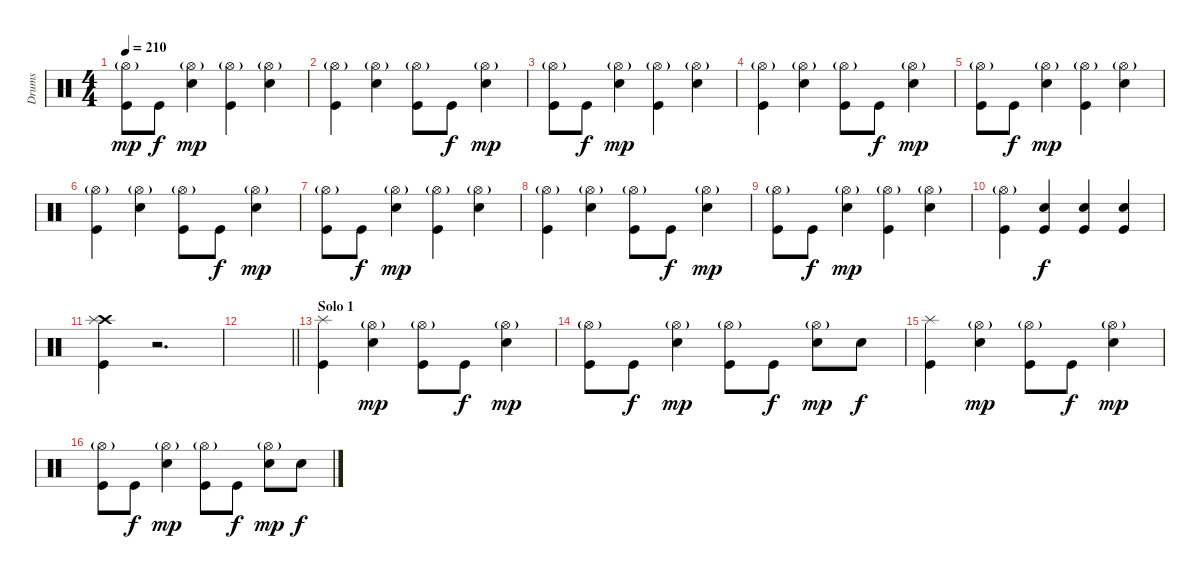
\track ("Drums" "Drums") {instrument percussion}
\staff {score}
\articulation defaults
\ts (4 4)
\tempo 210
\clef neutral
\ks c
("Hi-Hat (open)"{g} "Kick (hit)").8{dy mp} "Kick (hit)".8{dy f} ("Hi-Hat (open)"{g} "Snare (hit) 2").4{dy mp} ("Hi-Hat (open)"{g} "Kick (hit)").4 ("Hi-Hat (open)"{g} "Snare (hit) 2").4 |
("Hi-Hat (open)"{g} "Kick (hit)").4 ("Hi-Hat (open)"{g} "Snare (hit) 2").4 ("Hi-Hat (open)"{g} "Kick (hit)").8 "Kick (hit)".8{dy f} ("Hi-Hat (open)"{g} "Snare (hit) 2").4{dy mp} |
("Hi-Hat (open)"{g} "Kick (hit)").8 "Kick (hit)".8{dy f} ("Hi-Hat (open)"{g} "Snare (hit) 2").4{dy mp} ("Hi-Hat (open)"{g} "Kick (hit)").4 ("Hi-Hat (open)"{g} "Snare (hit) 2").4 |
("Hi-Hat (open)"{g} "Kick (hit)").4 ("Hi-Hat (open)"{g} "Snare (hit) 2").4 ("Hi-Hat (open)"{g} "Kick (hit)").8 "Kick (hit)".8{dy f} ("Hi-Hat (open)"{g} "Snare (hit) 2").4{dy mp} |
("Hi-Hat (open)"{g} "Kick (hit)").8 "Kick (hit)".8{dy f} ("Hi-Hat (open)"{g} "Snare (hit) 2").4{dy mp} ("Hi-Hat (open)"{g} "Kick (hit)").4 ("Hi-Hat (open)"{g} "Snare (hit) 2").4 |
("Hi-Hat (open)"{g} "Kick (hit)").4 ("Hi-Hat (open)"{g} "Snare (hit) 2").4 ("Hi-Hat (open)"{g} "Kick (hit)").8 "Kick (hit)".8{dy f} ("Hi-Hat (open)"{g} "Snare (hit) 2").4{dy mp} |
("Hi-Hat (open)"{g} "Kick (hit)").8 "Kick (hit)".8{dy f} ("Hi-Hat (open)"{g} "Snare (hit) 2").4{dy mp} ("Hi-Hat (open)"{g} "Kick (hit)").4 ("Hi-Hat (open)"{g} "Snare (hit) 2").4 |
("Hi-Hat (open)"{g} "Kick (hit)").4 ("Hi-Hat (open)"{g} "Snare (hit) 2").4 ("Hi-Hat (open)"{g} "Kick (hit)").8 "Kick (hit)".8{dy f} ("Hi-Hat (open)"{g} "Snare (hit) 2").4{dy mp} |
("Hi-Hat (open)"{g} "Kick (hit)").8 "Kick (hit)".8{dy f} ("Hi-Hat (open)"{g} "Snare (hit) 2").4{dy mp} ("Hi-Hat (open)"{g} "Kick (hit)").4 ("Hi-Hat (open)"{g} "Snare (hit) 2").4 |
("Hi-Hat (open)"{g} "Kick (hit)").4 ("Snare (hit) 2" "Kick (hit)").4{dy f} ("Snare (hit) 2" "Kick (hit)").4 ("Snare (hit) 2" "Kick (hit)").4 |
("Crash high (hit)" "Splash (hit)" "Kick (hit)").4 r.2{d} |
\barLineRight lightlight
|
\section ("" "Solo 1")
("Splash (hit)" "Kick (hit)").4 ("Hi-Hat (open)"{g} "Snare (hit) 2").4{dy mp} ("Hi-Hat (open)"{g} "Kick (hit)").8 "Kick (hit)".8{dy f} ("Hi-Hat (open)"{g} "Snare (hit) 2").4{dy mp} |
("Hi-Hat (open)"{g} "Kick (hit)").8 "Kick (hit)".8{dy f} ("Hi-Hat (open)"{g} "Snare (hit) 2").4{dy mp} ("Hi-Hat (open)"{g} "Kick (hit)").8 "Kick (hit)".8{dy f} ("Hi-Hat (open)"{g} "Snare (hit) 2").8{dy mp} "Snare (hit) 2".8{dy f} |
("Splash (hit)" "Kick (hit)").4 ("Hi-Hat (open)"{g} "Snare (hit) 2").4{dy mp} ("Hi-Hat (open)"{g} "Kick (hit)").8 "Kick (hit)".8{dy f} ("Hi-Hat (open)"{g} "Snare (hit) 2").4{dy mp} |
("Hi-Hat (open)"{g} "Kick (hit)").8 "Kick (hit)".8{dy f} ("Hi-Hat (open)"{g} "Snare (hit) 2").4{dy mp} ("Hi-Hat (open)"{g} "Kick (hit)").8 "Kick (hit)".8{dy f} ("Hi-Hat (open)"{g} "Snare (hit) 2").8{dy mp} "Snare (hit) 2".8{dy f}
